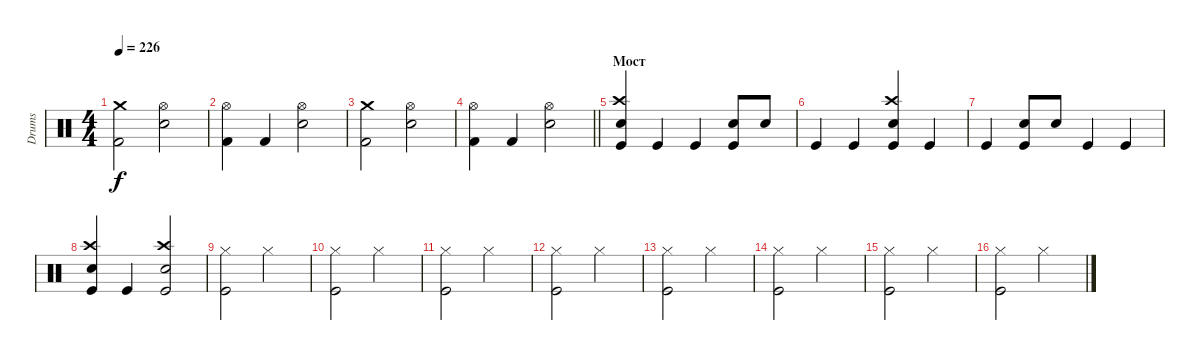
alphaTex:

\track ("Drums" "Drums") {instrument percussion}
\staff
\articulation defaults
\ts (4 4)
\tempo 226
\clef neutral
\ks c
("Crash medium (hit)" "Kick (hit) 2").2{dy f} ("Hi-Hat (open)" "Snare (hit) 2").2 |
("Hi-Hat (open)" "Kick (hit) 2").4 "Kick (hit) 2".4 ("Hi-Hat (open)" "Snare (hit) 2").2 |
("Crash medium (hit)" "Kick (hit) 2").2 ("Hi-Hat (open)" "Snare (hit) 2").2 |
\barLineRight lightlight
("Hi-Hat (open)" "Kick (hit) 2").4 "Kick (hit) 2".4 ("Hi-Hat (open)" "Snare (hit) 2").2 |
\section ("" "Мост")
("Crash high (hit)" "Snare (hit) 2" "Kick (hit)").4 "Kick (hit)".4 "Kick (hit)".4 ("Snare (hit) 2" "Kick (hit)").8 "Snare (hit) 2".8 |
"Kick (hit)".4 "Kick (hit)".4 ("Crash high (hit)" "Snare (hit) 2" "Kick (hit)").4 "Kick (hit)".4 |
"Kick (hit)".4 ("Snare (hit) 2" "Kick (hit)").8 "Snare (hit) 2".8 "Kick (hit)".4 "Kick (hit)".4 |
("Crash high (hit)" "Snare (hit) 2" "Kick (hit)").4 "Kick (hit)".4 ("Crash high (hit)" "Snare (hit) 2" "Kick (hit)").2 |
("Hi-Hat (closed)" "Kick (hit)").2 "Hi-Hat (closed)".2 |
("Hi-Hat (closed)" "Kick (hit)").2 "Hi-Hat (closed)".2 |
("Hi-Hat (closed)" "Kick (hit)").2 "Hi-Hat (closed)".2 |
("Hi-Hat (closed)" "Kick (hit)").2 "Hi-Hat (closed)".2 |
("Hi-Hat (closed)" "Kick (hit)").2 "Hi-Hat (closed)".2 |
("Hi-Hat (closed)" "Kick (hit)").2 "Hi-Hat (closed)".2 |
("Hi-Hat (closed)" "Kick (hit)").2 "Hi-Hat (closed)".2 |
("Hi-Hat (closed)" "Kick (hit)").2 "Hi-Hat (closed)".2
